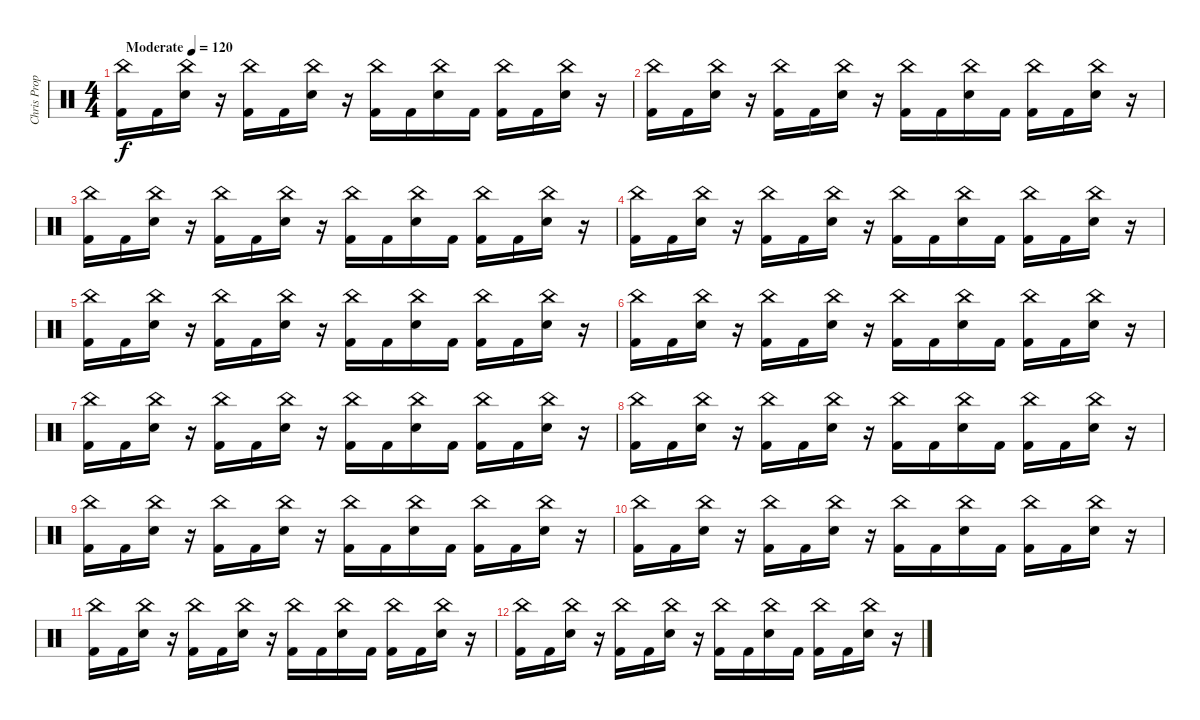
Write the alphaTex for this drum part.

\track ("Chris Prophet" "Chris Prop") {instrument percussion}
\staff {score}
\articulation defaults
\ts (4 4)
\tempo (120 "Moderate")
\clef neutral
\ks c
("Kick (hit) 2" "China (hit)").16{dy f} "Kick (hit) 2".16 ("Electric Snare (hit)" "China (hit)").16 r.16 ("Kick (hit) 2" "China (hit)").16 "Kick (hit) 2".16 ("Electric Snare (hit)" "China (hit)").16 r.16 ("Kick (hit) 2" "China (hit)").16 "Kick (hit) 2".16 ("Electric Snare (hit)" "China (hit)").16 "Kick (hit) 2".16 ("Kick (hit) 2" "China (hit)").16 "Kick (hit) 2".16 ("Electric Snare (hit)" "China (hit)").16 r.16 |
("Kick (hit) 2" "China (hit)").16 "Kick (hit) 2".16 ("Electric Snare (hit)" "China (hit)").16 r.16 ("Kick (hit) 2" "China (hit)").16 "Kick (hit) 2".16 ("Electric Snare (hit)" "China (hit)").16 r.16 ("Kick (hit) 2" "China (hit)").16 "Kick (hit) 2".16 ("Electric Snare (hit)" "China (hit)").16 "Kick (hit) 2".16 ("Kick (hit) 2" "China (hit)").16 "Kick (hit) 2".16 ("Electric Snare (hit)" "China (hit)").16 r.16 |
("Kick (hit) 2" "China (hit)").16 "Kick (hit) 2".16 ("Electric Snare (hit)" "China (hit)").16 r.16 ("Kick (hit) 2" "China (hit)").16 "Kick (hit) 2".16 ("Electric Snare (hit)" "China (hit)").16 r.16 ("Kick (hit) 2" "China (hit)").16 "Kick (hit) 2".16 ("Electric Snare (hit)" "China (hit)").16 "Kick (hit) 2".16 ("Kick (hit) 2" "China (hit)").16 "Kick (hit) 2".16 ("Electric Snare (hit)" "China (hit)").16 r.16 |
("Kick (hit) 2" "China (hit)").16 "Kick (hit) 2".16 ("Electric Snare (hit)" "China (hit)").16 r.16 ("Kick (hit) 2" "China (hit)").16 "Kick (hit) 2".16 ("Electric Snare (hit)" "China (hit)").16 r.16 ("Kick (hit) 2" "China (hit)").16 "Kick (hit) 2".16 ("Electric Snare (hit)" "China (hit)").16 "Kick (hit) 2".16 ("Kick (hit) 2" "China (hit)").16 "Kick (hit) 2".16 ("Electric Snare (hit)" "China (hit)").16 r.16 |
("Kick (hit) 2" "China (hit)").16 "Kick (hit) 2".16 ("Electric Snare (hit)" "China (hit)").16 r.16 ("Kick (hit) 2" "China (hit)").16 "Kick (hit) 2".16 ("Electric Snare (hit)" "China (hit)").16 r.16 ("Kick (hit) 2" "China (hit)").16 "Kick (hit) 2".16 ("Electric Snare (hit)" "China (hit)").16 "Kick (hit) 2".16 ("Kick (hit) 2" "China (hit)").16 "Kick (hit) 2".16 ("Electric Snare (hit)" "China (hit)").16 r.16 |
("Kick (hit) 2" "China (hit)").16 "Kick (hit) 2".16 ("Electric Snare (hit)" "China (hit)").16 r.16 ("Kick (hit) 2" "China (hit)").16 "Kick (hit) 2".16 ("Electric Snare (hit)" "China (hit)").16 r.16 ("Kick (hit) 2" "China (hit)").16 "Kick (hit) 2".16 ("Electric Snare (hit)" "China (hit)").16 "Kick (hit) 2".16 ("Kick (hit) 2" "China (hit)").16 "Kick (hit) 2".16 ("Electric Snare (hit)" "China (hit)").16 r.16 |
("Kick (hit) 2" "China (hit)").16 "Kick (hit) 2".16 ("Electric Snare (hit)" "China (hit)").16 r.16 ("Kick (hit) 2" "China (hit)").16 "Kick (hit) 2".16 ("Electric Snare (hit)" "China (hit)").16 r.16 ("Kick (hit) 2" "China (hit)").16 "Kick (hit) 2".16 ("Electric Snare (hit)" "China (hit)").16 "Kick (hit) 2".16 ("Kick (hit) 2" "China (hit)").16 "Kick (hit) 2".16 ("Electric Snare (hit)" "China (hit)").16 r.16 |
("Kick (hit) 2" "China (hit)").16 "Kick (hit) 2".16 ("Electric Snare (hit)" "China (hit)").16 r.16 ("Kick (hit) 2" "China (hit)").16 "Kick (hit) 2".16 ("Electric Snare (hit)" "China (hit)").16 r.16 ("Kick (hit) 2" "China (hit)").16 "Kick (hit) 2".16 ("Electric Snare (hit)" "China (hit)").16 "Kick (hit) 2".16 ("Kick (hit) 2" "China (hit)").16 "Kick (hit) 2".16 ("Electric Snare (hit)" "China (hit)").16 r.16 |
("Kick (hit) 2" "China (hit)").16 "Kick (hit) 2".16 ("Electric Snare (hit)" "China (hit)").16 r.16 ("Kick (hit) 2" "China (hit)").16 "Kick (hit) 2".16 ("Electric Snare (hit)" "China (hit)").16 r.16 ("Kick (hit) 2" "China (hit)").16 "Kick (hit) 2".16 ("Electric Snare (hit)" "China (hit)").16 "Kick (hit) 2".16 ("Kick (hit) 2" "China (hit)").16 "Kick (hit) 2".16 ("Electric Snare (hit)" "China (hit)").16 r.16 |
("Kick (hit) 2" "China (hit)").16 "Kick (hit) 2".16 ("Electric Snare (hit)" "China (hit)").16 r.16 ("Kick (hit) 2" "China (hit)").16 "Kick (hit) 2".16 ("Electric Snare (hit)" "China (hit)").16 r.16 ("Kick (hit) 2" "China (hit)").16 "Kick (hit) 2".16 ("Electric Snare (hit)" "China (hit)").16 "Kick (hit) 2".16 ("Kick (hit) 2" "China (hit)").16 "Kick (hit) 2".16 ("Electric Snare (hit)" "China (hit)").16 r.16 |
("Kick (hit) 2" "China (hit)").16 "Kick (hit) 2".16 ("Electric Snare (hit)" "China (hit)").16 r.16 ("Kick (hit) 2" "China (hit)").16 "Kick (hit) 2".16 ("Electric Snare (hit)" "China (hit)").16 r.16 ("Kick (hit) 2" "China (hit)").16 "Kick (hit) 2".16 ("Electric Snare (hit)" "China (hit)").16 "Kick (hit) 2".16 ("Kick (hit) 2" "China (hit)").16 "Kick (hit) 2".16 ("Electric Snare (hit)" "China (hit)").16 r.16 |
("Kick (hit) 2" "China (hit)").16 "Kick (hit) 2".16 ("Electric Snare (hit)" "China (hit)").16 r.16 ("Kick (hit) 2" "China (hit)").16 "Kick (hit) 2".16 ("Electric Snare (hit)" "China (hit)").16 r.16 ("Kick (hit) 2" "China (hit)").16 "Kick (hit) 2".16 ("Electric Snare (hit)" "China (hit)").16 "Kick (hit) 2".16 ("Kick (hit) 2" "China (hit)").16 "Kick (hit) 2".16 ("Electric Snare (hit)" "China (hit)").16 r.16
